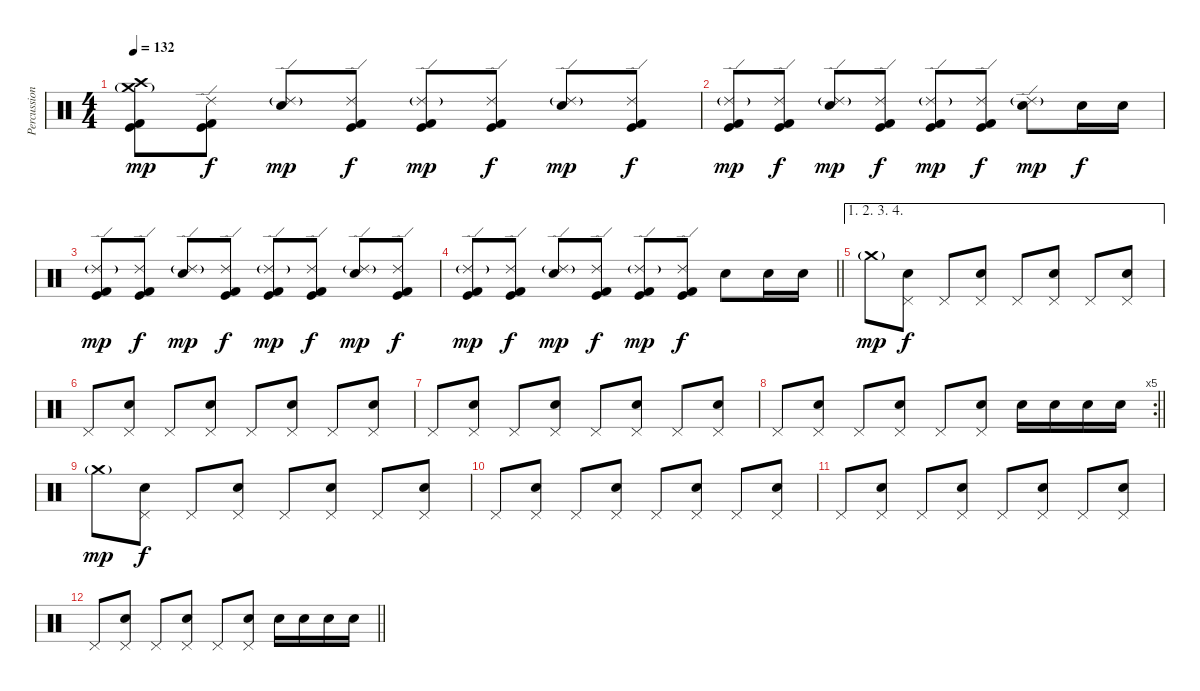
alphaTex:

\track ("Percussion" "Percussion") {instrument percussion}
\staff {score}
\articulation defaults
\ts (4 4)
\tempo 132
\clef neutral
\ks c
("Crash medium (hit)"{g} "Crash high (hit)" "Kick (hit)" "Kick (hit) 2").8{dy mp} ("Ride (edge) 2" "Kick (hit)" "Kick (hit) 2").8{dy f} ("Ride (edge) 2"{g} "Electric Snare (hit)").8{dy mp} ("Ride (edge) 2" "Kick (hit)" "Kick (hit) 2").8{dy f} ("Ride (edge) 2"{g} "Kick (hit)" "Kick (hit) 2").8{dy mp} ("Ride (edge) 2" "Kick (hit)" "Kick (hit) 2").8{dy f} ("Ride (edge) 2"{g} "Electric Snare (hit)").8{dy mp} ("Ride (edge) 2" "Kick (hit)" "Kick (hit) 2").8{dy f} |
("Ride (edge) 2"{g} "Kick (hit)" "Kick (hit) 2").8{dy mp} ("Ride (edge) 2" "Kick (hit)" "Kick (hit) 2").8{dy f} ("Ride (edge) 2"{g} "Electric Snare (hit)").8{dy mp} ("Ride (edge) 2" "Kick (hit)" "Kick (hit) 2").8{dy f} ("Ride (edge) 2"{g} "Kick (hit)" "Kick (hit) 2").8{dy mp} ("Ride (edge) 2" "Kick (hit)" "Kick (hit) 2").8{dy f} ("Ride (edge) 2"{g} "Electric Snare (hit)").8{dy mp} "Electric Snare (hit)".16{dy f} "Electric Snare (hit)".16 |
("Ride (edge) 2"{g} "Kick (hit)" "Kick (hit) 2").8{dy mp} ("Ride (edge) 2" "Kick (hit)" "Kick (hit) 2").8{dy f} ("Ride (edge) 2"{g} "Electric Snare (hit)").8{dy mp} ("Ride (edge) 2" "Kick (hit)" "Kick (hit) 2").8{dy f} ("Ride (edge) 2"{g} "Kick (hit)" "Kick (hit) 2").8{dy mp} ("Ride (edge) 2" "Kick (hit)" "Kick (hit) 2").8{dy f} ("Ride (edge) 2"{g} "Electric Snare (hit)").8{dy mp} ("Ride (edge) 2" "Kick (hit)" "Kick (hit) 2").8{dy f} |
\barLineRight lightlight
("Ride (edge) 2"{g} "Kick (hit)" "Kick (hit) 2").8{dy mp} ("Ride (edge) 2" "Kick (hit)" "Kick (hit) 2").8{dy f} ("Ride (edge) 2"{g} "Electric Snare (hit)").8{dy mp} ("Ride (edge) 2" "Kick (hit)" "Kick (hit) 2").8{dy f} ("Ride (edge) 2"{g} "Kick (hit)" "Kick (hit) 2").8{dy mp} ("Ride (edge) 2" "Kick (hit)" "Kick (hit) 2").8{dy f} "Electric Snare (hit)".8 "Electric Snare (hit)".16 "Electric Snare (hit)".16 |
\ae (1 2 3 4)
\section ("" "")
"Crash medium (hit)"{g}.8{dy mp} ("Pedal Hi-Hat (hit)" "Electric Snare (hit)").8{dy f} "Pedal Hi-Hat (hit)".8 ("Pedal Hi-Hat (hit)" "Electric Snare (hit)").8 "Pedal Hi-Hat (hit)".8 ("Pedal Hi-Hat (hit)" "Electric Snare (hit)").8 "Pedal Hi-Hat (hit)".8 ("Pedal Hi-Hat (hit)" "Electric Snare (hit)").8 |
"Pedal Hi-Hat (hit)".8 ("Pedal Hi-Hat (hit)" "Electric Snare (hit)").8 "Pedal Hi-Hat (hit)".8 ("Pedal Hi-Hat (hit)" "Electric Snare (hit)").8 "Pedal Hi-Hat (hit)".8 ("Pedal Hi-Hat (hit)" "Electric Snare (hit)").8 "Pedal Hi-Hat (hit)".8 ("Pedal Hi-Hat (hit)" "Electric Snare (hit)").8 |
"Pedal Hi-Hat (hit)".8 ("Pedal Hi-Hat (hit)" "Electric Snare (hit)").8 "Pedal Hi-Hat (hit)".8 ("Pedal Hi-Hat (hit)" "Electric Snare (hit)").8 "Pedal Hi-Hat (hit)".8 ("Pedal Hi-Hat (hit)" "Electric Snare (hit)").8 "Pedal Hi-Hat (hit)".8 ("Pedal Hi-Hat (hit)" "Electric Snare (hit)").8 |
\rc 5
\barLineRight lightlight "Pedal Hi-Hat (hit)".8
("Pedal Hi-Hat (hit)" "Electric Snare (hit)").8 "Pedal Hi-Hat (hit)".8 ("Pedal Hi-Hat (hit)" "Electric Snare (hit)").8 "Pedal Hi-Hat (hit)".8 ("Pedal Hi-Hat (hit)" "Electric Snare (hit)").8 "Electric Snare (hit)".16 "Electric Snare (hit)".16 "Electric Snare (hit)".16 "Electric Snare (hit)".16 |
\section ("" "")
"Crash medium (hit)"{g}.8{dy mp volume 0} ("Pedal Hi-Hat (hit)" "Electric Snare (hit)").8{dy f} "Pedal Hi-Hat (hit)".8 ("Pedal Hi-Hat (hit)" "Electric Snare (hit)").8 "Pedal Hi-Hat (hit)".8 ("Pedal Hi-Hat (hit)" "Electric Snare (hit)").8 "Pedal Hi-Hat (hit)".8 ("Pedal Hi-Hat (hit)" "Electric Snare (hit)").8 |
"Pedal Hi-Hat (hit)".8 ("Pedal Hi-Hat (hit)" "Electric Snare (hit)").8 "Pedal Hi-Hat (hit)".8 ("Pedal Hi-Hat (hit)" "Electric Snare (hit)").8 "Pedal Hi-Hat (hit)".8 ("Pedal Hi-Hat (hit)" "Electric Snare (hit)").8 "Pedal Hi-Hat (hit)".8 ("Pedal Hi-Hat (hit)" "Electric Snare (hit)").8 |
"Pedal Hi-Hat (hit)".8 ("Pedal Hi-Hat (hit)" "Electric Snare (hit)").8 "Pedal Hi-Hat (hit)".8 ("Pedal Hi-Hat (hit)" "Electric Snare (hit)").8 "Pedal Hi-Hat (hit)".8 ("Pedal Hi-Hat (hit)" "Electric Snare (hit)").8 "Pedal Hi-Hat (hit)".8 ("Pedal Hi-Hat (hit)" "Electric Snare (hit)").8 |
\barLineRight lightlight "Pedal Hi-Hat (hit)".8
("Pedal Hi-Hat (hit)" "Electric Snare (hit)").8 "Pedal Hi-Hat (hit)".8 ("Pedal Hi-Hat (hit)" "Electric Snare (hit)").8 "Pedal Hi-Hat (hit)".8 ("Pedal Hi-Hat (hit)" "Electric Snare (hit)").8 "Electric Snare (hit)".16 "Electric Snare (hit)".16 "Electric Snare (hit)".16 "Electric Snare (hit)".16
